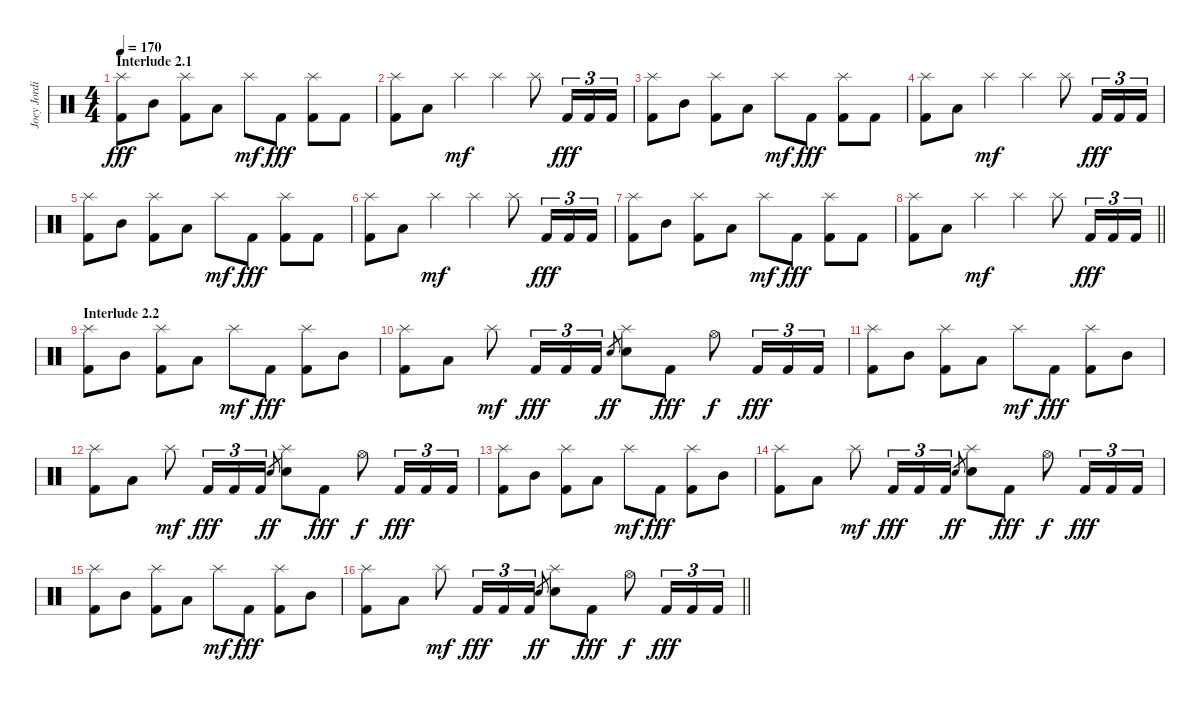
\track ("Joey Jordison" "Joey Jordi") {instrument percussion}
\staff {score}
\articulation defaults
\ts (4 4)
\section ("" "Interlude 2.1")
\tempo 170
\clef neutral
\ks c
("Splash (hit)" "Kick (hit) 2").8{dy fff} "Mid Tom (hit)".8 ("Splash (hit)" "Kick (hit) 2").8 "Low Tom (hit)".8 "Splash (hit)".8{dy mf} "Kick (hit) 2".8{dy fff} ("Splash (hit)" "Kick (hit) 2").8 "Kick (hit) 2".8 |
("Splash (hit)" "Kick (hit) 2").8 "Low Tom (hit)".8 "Splash (hit)".4{dy mf} "Splash (hit)".4 "Splash (hit)".8 "Kick (hit) 2".16{tu (3 2) dy fff} "Kick (hit) 2".16{tu (3 2)} "Kick (hit) 2".16{tu (3 2)} |
("Splash (hit)" "Kick (hit) 2").8 "Mid Tom (hit)".8 ("Splash (hit)" "Kick (hit) 2").8 "Low Tom (hit)".8 "Splash (hit)".8{dy mf} "Kick (hit) 2".8{dy fff} ("Splash (hit)" "Kick (hit) 2").8 "Kick (hit) 2".8 |
("Splash (hit)" "Kick (hit) 2").8 "Low Tom (hit)".8 "Splash (hit)".4{dy mf} "Splash (hit)".4 "Splash (hit)".8 "Kick (hit) 2".16{tu (3 2) dy fff} "Kick (hit) 2".16{tu (3 2)} "Kick (hit) 2".16{tu (3 2)} |
("Splash (hit)" "Kick (hit) 2").8 "Mid Tom (hit)".8 ("Splash (hit)" "Kick (hit) 2").8 "Low Tom (hit)".8 "Splash (hit)".8{dy mf} "Kick (hit) 2".8{dy fff} ("Splash (hit)" "Kick (hit) 2").8 "Kick (hit) 2".8 |
("Splash (hit)" "Kick (hit) 2").8 "Low Tom (hit)".8 "Splash (hit)".4{dy mf} "Splash (hit)".4 "Splash (hit)".8 "Kick (hit) 2".16{tu (3 2) dy fff} "Kick (hit) 2".16{tu (3 2)} "Kick (hit) 2".16{tu (3 2)} |
("Splash (hit)" "Kick (hit) 2").8 "Mid Tom (hit)".8 ("Splash (hit)" "Kick (hit) 2").8 "Low Tom (hit)".8 "Splash (hit)".8{dy mf} "Kick (hit) 2".8{dy fff} ("Splash (hit)" "Kick (hit) 2").8 "Kick (hit) 2".8 |
\barLineRight lightlight
("Splash (hit)" "Kick (hit) 2").8 "Low Tom (hit)".8 "Splash (hit)".4{dy mf} "Splash (hit)".4 "Splash (hit)".8 "Kick (hit) 2".16{tu (3 2) dy fff} "Kick (hit) 2".16{tu (3 2)} "Kick (hit) 2".16{tu (3 2)} |
\section ("" "Interlude 2.2")
("Splash (hit)" "Kick (hit) 2").8 "Mid Tom (hit)".8 ("Splash (hit)" "Kick (hit) 2").8 "Low Tom (hit)".8 "Splash (hit)".8{dy mf} "Kick (hit) 2".8{dy fff} ("Splash (hit)" "Kick (hit) 2").8 "Mid Tom (hit)".8 |
("Splash (hit)" "Kick (hit) 2").8 "Low Tom (hit)".8 "Splash (hit)".8{dy mf} "Kick (hit) 2".16{tu (3 2) dy fff} "Kick (hit) 2".16{tu (3 2)} "Kick (hit) 2".16{tu (3 2)} "Electric Snare (hit)".8{gr dy ff} ("Splash (hit)" "Electric Snare (hit)").8 "Kick (hit) 2".8{dy fff} "Hi-Hat (open)".8{dy f} "Kick (hit) 2".16{tu (3 2) dy fff} "Kick (hit) 2".16{tu (3 2)} "Kick (hit) 2".16{tu (3 2)} |
("Splash (hit)" "Kick (hit) 2").8 "Mid Tom (hit)".8 ("Splash (hit)" "Kick (hit) 2").8 "Low Tom (hit)".8 "Splash (hit)".8{dy mf} "Kick (hit) 2".8{dy fff} ("Splash (hit)" "Kick (hit) 2").8 "Mid Tom (hit)".8 |
("Splash (hit)" "Kick (hit) 2").8 "Low Tom (hit)".8 "Splash (hit)".8{dy mf} "Kick (hit) 2".16{tu (3 2) dy fff} "Kick (hit) 2".16{tu (3 2)} "Kick (hit) 2".16{tu (3 2)} "Electric Snare (hit)".8{gr dy ff} ("Splash (hit)" "Electric Snare (hit)").8 "Kick (hit) 2".8{dy fff} "Hi-Hat (open)".8{dy f} "Kick (hit) 2".16{tu (3 2) dy fff} "Kick (hit) 2".16{tu (3 2)} "Kick (hit) 2".16{tu (3 2)} |
("Splash (hit)" "Kick (hit) 2").8 "Mid Tom (hit)".8 ("Splash (hit)" "Kick (hit) 2").8 "Low Tom (hit)".8 "Splash (hit)".8{dy mf} "Kick (hit) 2".8{dy fff} ("Splash (hit)" "Kick (hit) 2").8 "Mid Tom (hit)".8 |
("Splash (hit)" "Kick (hit) 2").8 "Low Tom (hit)".8 "Splash (hit)".8{dy mf} "Kick (hit) 2".16{tu (3 2) dy fff} "Kick (hit) 2".16{tu (3 2)} "Kick (hit) 2".16{tu (3 2)} "Electric Snare (hit)".8{gr dy ff} ("Splash (hit)" "Electric Snare (hit)").8 "Kick (hit) 2".8{dy fff} "Hi-Hat (open)".8{dy f} "Kick (hit) 2".16{tu (3 2) dy fff} "Kick (hit) 2".16{tu (3 2)} "Kick (hit) 2".16{tu (3 2)} |
("Splash (hit)" "Kick (hit) 2").8 "Mid Tom (hit)".8 ("Splash (hit)" "Kick (hit) 2").8 "Low Tom (hit)".8 "Splash (hit)".8{dy mf} "Kick (hit) 2".8{dy fff} ("Splash (hit)" "Kick (hit) 2").8 "Mid Tom (hit)".8 |
\barLineRight lightlight
("Splash (hit)" "Kick (hit) 2").8 "Low Tom (hit)".8 "Splash (hit)".8{dy mf} "Kick (hit) 2".16{tu (3 2) dy fff} "Kick (hit) 2".16{tu (3 2)} "Kick (hit) 2".16{tu (3 2)} "Electric Snare (hit)".8{gr dy ff} ("Splash (hit)" "Electric Snare (hit)").8 "Kick (hit) 2".8{dy fff} "Hi-Hat (open)".8{dy f} "Kick (hit) 2".16{tu (3 2) dy fff} "Kick (hit) 2".16{tu (3 2)} "Kick (hit) 2".16{tu (3 2)}
